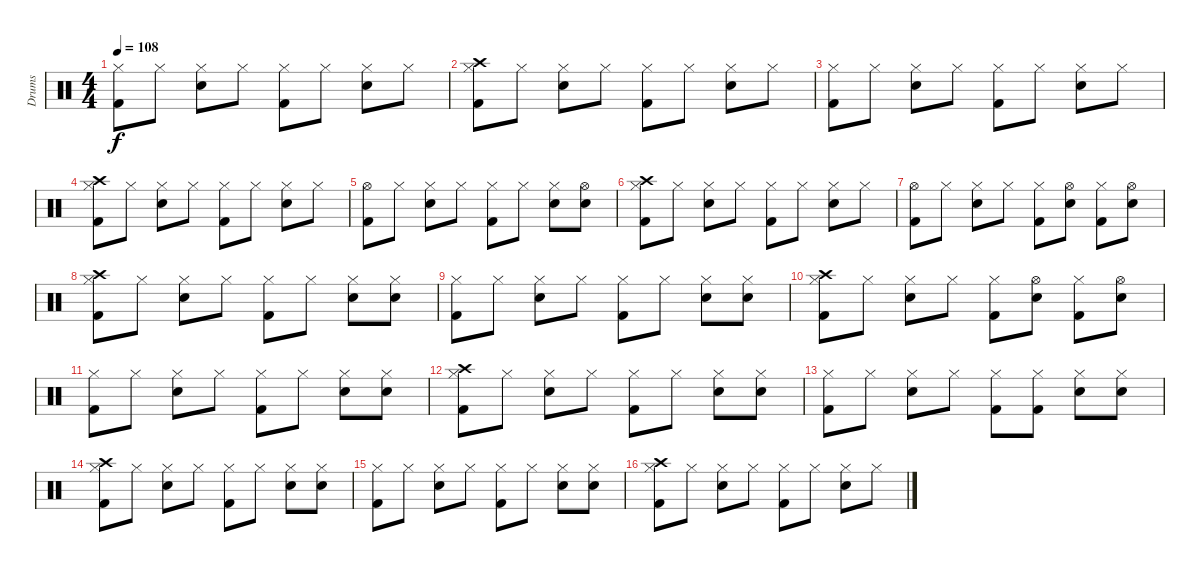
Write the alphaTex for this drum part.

\track ("Drums" "Drums") {instrument percussion}
\staff {score}
\articulation defaults
\ts (4 4)
\tempo 108
\clef neutral
\ks c
("Hi-Hat (closed)" "Kick (hit) 2").8{dy f} "Hi-Hat (closed)".8 ("Hi-Hat (closed)" "Snare (hit) 2").8 "Hi-Hat (closed)".8 ("Hi-Hat (closed)" "Kick (hit) 2").8 "Hi-Hat (closed)".8 ("Hi-Hat (closed)" "Snare (hit) 2").8 "Hi-Hat (closed)".8 |
("Crash high (hit)" "Hi-Hat (closed)" "Kick (hit) 2").8 "Hi-Hat (closed)".8 ("Hi-Hat (closed)" "Snare (hit) 2").8 "Hi-Hat (closed)".8 ("Hi-Hat (closed)" "Kick (hit) 2").8 "Hi-Hat (closed)".8 ("Hi-Hat (closed)" "Snare (hit) 2").8 "Hi-Hat (closed)".8 |
("Hi-Hat (closed)" "Kick (hit) 2").8 "Hi-Hat (closed)".8 ("Hi-Hat (closed)" "Snare (hit) 2").8 "Hi-Hat (closed)".8 ("Hi-Hat (closed)" "Kick (hit) 2").8 "Hi-Hat (closed)".8 ("Hi-Hat (closed)" "Snare (hit) 2").8 "Hi-Hat (closed)".8 |
("Crash high (hit)" "Hi-Hat (closed)" "Kick (hit) 2").8 "Hi-Hat (closed)".8 ("Hi-Hat (closed)" "Snare (hit) 2").8 "Hi-Hat (closed)".8 ("Hi-Hat (closed)" "Kick (hit) 2").8 "Hi-Hat (closed)".8 ("Hi-Hat (closed)" "Snare (hit) 2").8 "Hi-Hat (closed)".8 |
("Hi-Hat (open)" "Kick (hit) 2").8 "Hi-Hat (closed)".8 ("Hi-Hat (closed)" "Snare (hit) 2").8 "Hi-Hat (closed)".8 ("Hi-Hat (closed)" "Kick (hit) 2").8 "Hi-Hat (closed)".8 ("Hi-Hat (closed)" "Snare (hit) 2").8 ("Hi-Hat (open)" "Snare (hit) 2").8 |
("Crash high (hit)" "Hi-Hat (closed)" "Kick (hit) 2").8 "Hi-Hat (closed)".8 ("Hi-Hat (closed)" "Snare (hit) 2").8 "Hi-Hat (closed)".8 ("Hi-Hat (closed)" "Kick (hit) 2").8 "Hi-Hat (closed)".8 ("Hi-Hat (closed)" "Snare (hit) 2").8 "Hi-Hat (closed)".8 |
("Hi-Hat (open)" "Kick (hit) 2").8 "Hi-Hat (closed)".8 ("Hi-Hat (closed)" "Snare (hit) 2").8 "Hi-Hat (closed)".8 ("Hi-Hat (closed)" "Kick (hit) 2").8 ("Hi-Hat (open)" "Snare (hit) 2").8 ("Hi-Hat (closed)" "Kick (hit) 2").8 ("Hi-Hat (open)" "Snare (hit) 2").8 |
("Crash high (hit)" "Hi-Hat (closed)" "Kick (hit) 2").8 "Hi-Hat (closed)".8 ("Hi-Hat (closed)" "Snare (hit) 2").8 "Hi-Hat (closed)".8 ("Hi-Hat (closed)" "Kick (hit) 2").8 "Hi-Hat (closed)".8 ("Hi-Hat (closed)" "Snare (hit) 2").8 ("Hi-Hat (closed)" "Snare (hit) 2").8 |
("Hi-Hat (closed)" "Kick (hit) 2").8 "Hi-Hat (closed)".8 ("Hi-Hat (closed)" "Snare (hit) 2").8 "Hi-Hat (closed)".8 ("Hi-Hat (closed)" "Kick (hit) 2").8 "Hi-Hat (closed)".8 ("Hi-Hat (closed)" "Snare (hit) 2").8 ("Hi-Hat (closed)" "Snare (hit) 2").8 |
("Crash high (hit)" "Hi-Hat (closed)" "Kick (hit) 2").8 "Hi-Hat (closed)".8 ("Hi-Hat (closed)" "Snare (hit) 2").8 "Hi-Hat (closed)".8 ("Hi-Hat (closed)" "Kick (hit) 2").8 ("Hi-Hat (open)" "Snare (hit) 2").8 ("Hi-Hat (closed)" "Kick (hit) 2").8 ("Hi-Hat (open)" "Snare (hit) 2").8 |
("Hi-Hat (closed)" "Kick (hit) 2").8 "Hi-Hat (closed)".8 ("Hi-Hat (closed)" "Snare (hit) 2").8 "Hi-Hat (closed)".8 ("Hi-Hat (closed)" "Kick (hit) 2").8 "Hi-Hat (closed)".8 ("Hi-Hat (closed)" "Snare (hit) 2").8 ("Hi-Hat (closed)" "Snare (hit) 2").8 |
("Crash high (hit)" "Hi-Hat (closed)" "Kick (hit) 2").8 "Hi-Hat (closed)".8 ("Hi-Hat (closed)" "Snare (hit) 2").8 "Hi-Hat (closed)".8 ("Hi-Hat (closed)" "Kick (hit) 2").8 "Hi-Hat (closed)".8 ("Hi-Hat (closed)" "Snare (hit) 2").8 ("Hi-Hat (closed)" "Snare (hit) 2").8 |
("Hi-Hat (closed)" "Kick (hit) 2").8 "Hi-Hat (closed)".8 ("Hi-Hat (closed)" "Snare (hit) 2").8 "Hi-Hat (closed)".8 ("Hi-Hat (closed)" "Kick (hit) 2").8 ("Hi-Hat (closed)" "Kick (hit) 2").8 ("Hi-Hat (closed)" "Snare (hit) 2").8 ("Hi-Hat (closed)" "Snare (hit) 2").8 |
("Crash high (hit)" "Hi-Hat (closed)" "Kick (hit) 2").8 "Hi-Hat (closed)".8 ("Hi-Hat (closed)" "Snare (hit) 2").8 "Hi-Hat (closed)".8 ("Hi-Hat (closed)" "Kick (hit) 2").8 "Hi-Hat (closed)".8 ("Hi-Hat (closed)" "Snare (hit) 2").8 ("Hi-Hat (closed)" "Snare (hit) 2").8 |
("Hi-Hat (closed)" "Kick (hit) 2").8 "Hi-Hat (closed)".8 ("Hi-Hat (closed)" "Snare (hit) 2").8 "Hi-Hat (closed)".8 ("Hi-Hat (closed)" "Kick (hit) 2").8 "Hi-Hat (closed)".8 ("Hi-Hat (closed)" "Snare (hit) 2").8 ("Hi-Hat (closed)" "Snare (hit) 2").8 |
("Crash high (hit)" "Hi-Hat (closed)" "Kick (hit) 2").8{volume 2} "Hi-Hat (closed)".8 ("Hi-Hat (closed)" "Snare (hit) 2").8 "Hi-Hat (closed)".8 ("Hi-Hat (closed)" "Kick (hit) 2").8 "Hi-Hat (closed)".8 ("Hi-Hat (closed)" "Snare (hit) 2").8 "Hi-Hat (closed)".8
